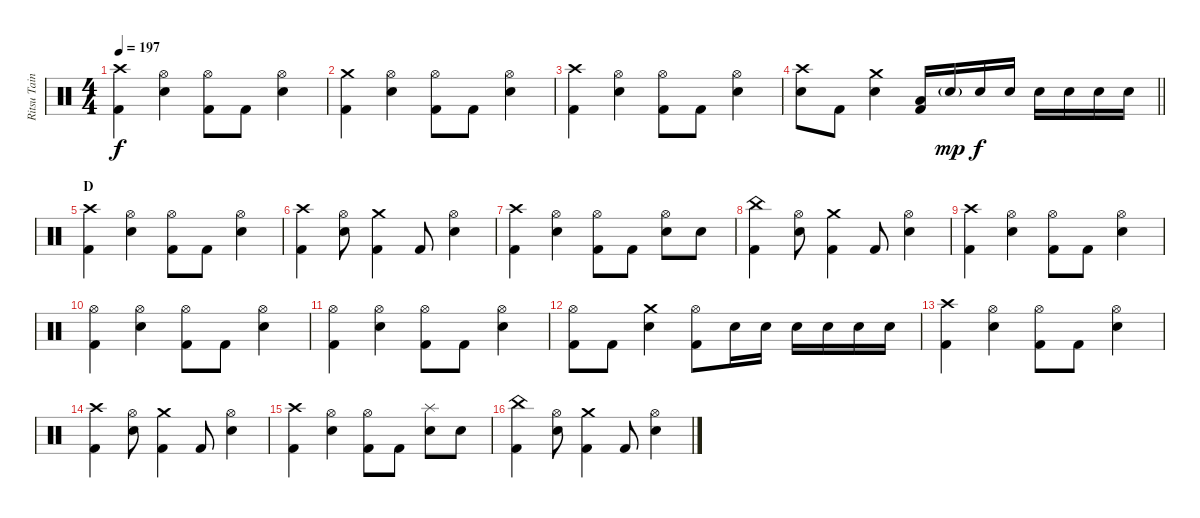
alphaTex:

\track ("Ritsu Tainaka" "Ritsu Tain") {instrument percussion}
\staff {score}
\articulation defaults
\ts (4 4)
\tempo 197
\clef neutral
\ks c
("Crash high (hit)" "Kick (hit) 2").4{dy f} ("Hi-Hat (open)" "Electric Snare (hit)").4 ("Hi-Hat (open)" "Kick (hit) 2").8 "Kick (hit) 2".8 ("Hi-Hat (open)" "Electric Snare (hit)").4 |
("Crash medium (hit)" "Kick (hit) 2").4 ("Hi-Hat (open)" "Electric Snare (hit)").4 ("Hi-Hat (open)" "Kick (hit) 2").8 "Kick (hit) 2".8 ("Hi-Hat (open)" "Electric Snare (hit)").4 |
("Crash high (hit)" "Kick (hit) 2").4 ("Hi-Hat (open)" "Electric Snare (hit)").4 ("Hi-Hat (open)" "Kick (hit) 2").8 "Kick (hit) 2".8 ("Hi-Hat (open)" "Electric Snare (hit)").4 |
\barLineRight lightlight
("Crash high (hit)" "Electric Snare (hit)").8 "Kick (hit) 2".8 ("Crash medium (hit)" "Electric Snare (hit)").4 ("Low Tom (hit)" "Kick (hit) 2").16 "Electric Snare (hit)"{g}.16{dy mp} "Electric Snare (hit)".16{dy f} "Electric Snare (hit)".16 "Electric Snare (hit)".16 "Electric Snare (hit)".16 "Electric Snare (hit)".16 "Electric Snare (hit)".16 |
\section ("" "D")
("Crash high (hit)" "Kick (hit) 2").4 ("Hi-Hat (open)" "Electric Snare (hit)").4 ("Hi-Hat (open)" "Kick (hit) 2").8 "Kick (hit) 2".8 ("Hi-Hat (open)" "Electric Snare (hit)").4 |
("Crash high (hit)" "Kick (hit) 2").4 ("Hi-Hat (open)" "Electric Snare (hit)").8 ("Crash medium (hit)" "Kick (hit) 2").4 "Kick (hit) 2".8 ("Hi-Hat (open)" "Electric Snare (hit)").4 |
("Crash high (hit)" "Kick (hit) 2").4 ("Hi-Hat (open)" "Electric Snare (hit)").4 ("Hi-Hat (open)" "Kick (hit) 2").8 "Kick (hit) 2".8 ("Hi-Hat (open)" "Electric Snare (hit)").8 "Electric Snare (hit)".8 |
("China (hit)" "Kick (hit) 2").4 ("Hi-Hat (open)" "Electric Snare (hit)").8 ("Crash medium (hit)" "Kick (hit) 2").4 "Kick (hit) 2".8 ("Hi-Hat (open)" "Electric Snare (hit)").4 |
("Crash high (hit)" "Kick (hit) 2").4 ("Hi-Hat (open)" "Electric Snare (hit)").4 ("Hi-Hat (open)" "Kick (hit) 2").8 "Kick (hit) 2".8 ("Hi-Hat (open)" "Electric Snare (hit)").4 |
("Hi-Hat (open)" "Kick (hit) 2").4 ("Hi-Hat (open)" "Electric Snare (hit)").4 ("Hi-Hat (open)" "Kick (hit) 2").8 "Kick (hit) 2".8 ("Hi-Hat (open)" "Electric Snare (hit)").4 |
("Hi-Hat (open)" "Kick (hit) 2").4 ("Hi-Hat (open)" "Electric Snare (hit)").4 ("Hi-Hat (open)" "Kick (hit) 2").8 "Kick (hit) 2".8 ("Hi-Hat (open)" "Electric Snare (hit)").4 |
("Hi-Hat (open)" "Kick (hit) 2").8 "Kick (hit) 2".8 ("Crash medium (hit)" "Electric Snare (hit)").4 ("Hi-Hat (open)" "Kick (hit) 2").8 "Electric Snare (hit)".16 "Electric Snare (hit)".16 "Electric Snare (hit)".16 "Electric Snare (hit)".16 "Electric Snare (hit)".16 "Electric Snare (hit)".16 |
("Crash high (hit)" "Kick (hit) 2").4 ("Hi-Hat (open)" "Electric Snare (hit)").4 ("Hi-Hat (open)" "Kick (hit) 2").8 "Kick (hit) 2".8 ("Hi-Hat (open)" "Electric Snare (hit)").4 |
("Crash high (hit)" "Kick (hit) 2").4 ("Hi-Hat (open)" "Electric Snare (hit)").8 ("Crash medium (hit)" "Kick (hit) 2").4 "Kick (hit) 2".8 ("Hi-Hat (open)" "Electric Snare (hit)").4 |
("Crash high (hit)" "Kick (hit) 2").4 ("Hi-Hat (open)" "Electric Snare (hit)").4 ("Hi-Hat (open)" "Kick (hit) 2").8 "Kick (hit) 2".8 ("Splash (hit)" "Electric Snare (hit)").8 "Electric Snare (hit)".8 |
("China (hit)" "Kick (hit) 2").4 ("Hi-Hat (open)" "Electric Snare (hit)").8 ("Crash medium (hit)" "Kick (hit) 2").4 "Kick (hit) 2".8 ("Hi-Hat (open)" "Electric Snare (hit)").4
